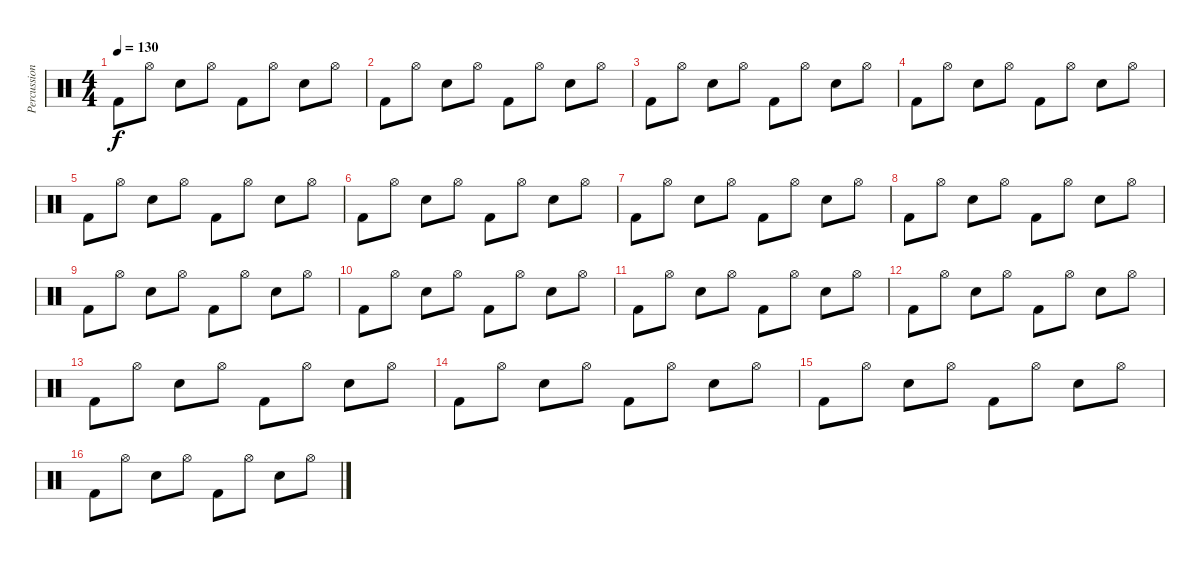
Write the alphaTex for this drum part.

\track ("Percussion" "Percussion") {instrument percussion}
\staff {score}
\articulation defaults
\ts (4 4)
\tempo 130
\clef neutral
\ks c "Kick (hit) 2".8{dy f} "Hi-Hat (open)".8 "Electric Snare (hit)".8 "Hi-Hat (open)".8 "Kick (hit) 2".8 "Hi-Hat (open)".8 "Electric Snare (hit)".8 "Hi-Hat (open)".8
|
"Kick (hit) 2".8 "Hi-Hat (open)".8 "Electric Snare (hit)".8 "Hi-Hat (open)".8 "Kick (hit) 2".8 "Hi-Hat (open)".8 "Electric Snare (hit)".8 "Hi-Hat (open)".8 |
"Kick (hit) 2".8 "Hi-Hat (open)".8 "Electric Snare (hit)".8 "Hi-Hat (open)".8 "Kick (hit) 2".8 "Hi-Hat (open)".8 "Electric Snare (hit)".8 "Hi-Hat (open)".8 |
"Kick (hit) 2".8 "Hi-Hat (open)".8 "Electric Snare (hit)".8 "Hi-Hat (open)".8 "Kick (hit) 2".8 "Hi-Hat (open)".8 "Electric Snare (hit)".8 "Hi-Hat (open)".8 |
"Kick (hit) 2".8 "Hi-Hat (open)".8 "Electric Snare (hit)".8 "Hi-Hat (open)".8 "Kick (hit) 2".8 "Hi-Hat (open)".8 "Electric Snare (hit)".8 "Hi-Hat (open)".8 |
"Kick (hit) 2".8 "Hi-Hat (open)".8 "Electric Snare (hit)".8 "Hi-Hat (open)".8 "Kick (hit) 2".8 "Hi-Hat (open)".8 "Electric Snare (hit)".8 "Hi-Hat (open)".8 |
"Kick (hit) 2".8 "Hi-Hat (open)".8 "Electric Snare (hit)".8 "Hi-Hat (open)".8 "Kick (hit) 2".8 "Hi-Hat (open)".8 "Electric Snare (hit)".8 "Hi-Hat (open)".8 |
"Kick (hit) 2".8 "Hi-Hat (open)".8 "Electric Snare (hit)".8 "Hi-Hat (open)".8 "Kick (hit) 2".8 "Hi-Hat (open)".8 "Electric Snare (hit)".8 "Hi-Hat (open)".8 |
"Kick (hit) 2".8 "Hi-Hat (open)".8 "Electric Snare (hit)".8 "Hi-Hat (open)".8 "Kick (hit) 2".8 "Hi-Hat (open)".8 "Electric Snare (hit)".8 "Hi-Hat (open)".8 |
"Kick (hit) 2".8 "Hi-Hat (open)".8 "Electric Snare (hit)".8 "Hi-Hat (open)".8 "Kick (hit) 2".8 "Hi-Hat (open)".8 "Electric Snare (hit)".8 "Hi-Hat (open)".8 |
"Kick (hit) 2".8 "Hi-Hat (open)".8 "Electric Snare (hit)".8 "Hi-Hat (open)".8 "Kick (hit) 2".8 "Hi-Hat (open)".8 "Electric Snare (hit)".8 "Hi-Hat (open)".8 |
"Kick (hit) 2".8 "Hi-Hat (open)".8 "Electric Snare (hit)".8 "Hi-Hat (open)".8 "Kick (hit) 2".8 "Hi-Hat (open)".8 "Electric Snare (hit)".8 "Hi-Hat (open)".8 |
"Kick (hit) 2".8 "Hi-Hat (open)".8 "Electric Snare (hit)".8 "Hi-Hat (open)".8 "Kick (hit) 2".8 "Hi-Hat (open)".8 "Electric Snare (hit)".8 "Hi-Hat (open)".8 |
"Kick (hit) 2".8 "Hi-Hat (open)".8 "Electric Snare (hit)".8 "Hi-Hat (open)".8 "Kick (hit) 2".8 "Hi-Hat (open)".8 "Electric Snare (hit)".8 "Hi-Hat (open)".8 |
"Kick (hit) 2".8 "Hi-Hat (open)".8 "Electric Snare (hit)".8 "Hi-Hat (open)".8 "Kick (hit) 2".8 "Hi-Hat (open)".8 "Electric Snare (hit)".8 "Hi-Hat (open)".8 |
"Kick (hit) 2".8 "Hi-Hat (open)".8 "Electric Snare (hit)".8 "Hi-Hat (open)".8 "Kick (hit) 2".8 "Hi-Hat (open)".8 "Electric Snare (hit)".8 "Hi-Hat (open)".8
